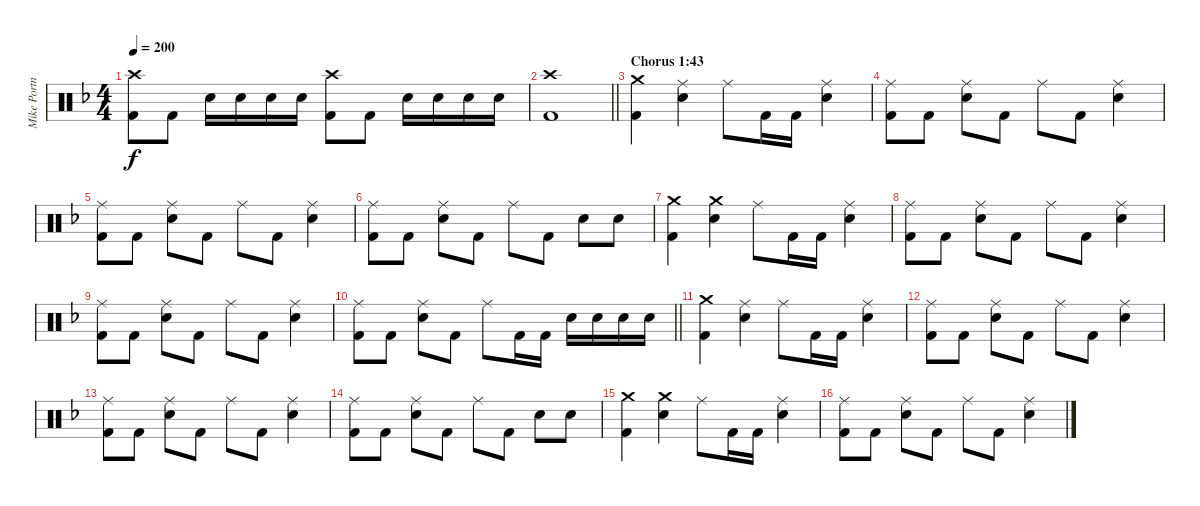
\track ("Mike Portnoy (Drums)" "Mike Portn") {instrument percussion}
\staff {score}
\articulation defaults
\ts (4 4)
\tempo 200
\clef neutral
\ks f
("Crash high (hit)" "Kick (hit) 2").8{dy f} "Kick (hit) 2".8 "Electric Snare (hit)".16 "Electric Snare (hit)".16 "Electric Snare (hit)".16 "Electric Snare (hit)".16 ("Crash high (hit)" "Kick (hit) 2").8 "Kick (hit) 2".8 "Electric Snare (hit)".16 "Electric Snare (hit)".16 "Electric Snare (hit)".16 "Electric Snare (hit)".16 |
\barLineRight lightlight
("Crash high (hit)" "Kick (hit) 2").1 |
\section ("" "Chorus 1:43")
("Crash medium (hit)" "Kick (hit) 2").4 ("Ride (middle)" "Electric Snare (hit)").4 "Ride (middle)".8 "Kick (hit) 2".16 "Kick (hit) 2".16 ("Ride (middle)" "Electric Snare (hit)").4 |
("Ride (middle)" "Kick (hit) 2").8 "Kick (hit) 2".8 ("Ride (middle)" "Electric Snare (hit)").8 "Kick (hit) 2".8 "Ride (middle)".8 "Kick (hit) 2".8 ("Ride (middle)" "Electric Snare (hit)").4 |
("Ride (middle)" "Kick (hit) 2").8 "Kick (hit) 2".8 ("Ride (middle)" "Electric Snare (hit)").8 "Kick (hit) 2".8 "Ride (middle)".8 "Kick (hit) 2".8 ("Ride (middle)" "Electric Snare (hit)").4 |
("Ride (middle)" "Kick (hit) 2").8 "Kick (hit) 2".8 ("Ride (middle)" "Electric Snare (hit)").8 "Kick (hit) 2".8 "Ride (middle)".8 "Kick (hit) 2".8 "Electric Snare (hit)".8 "Electric Snare (hit)".8 |
("Crash medium (hit)" "Kick (hit) 2").4 ("Crash medium (hit)" "Electric Snare (hit)").4 "Ride (middle)".8 "Kick (hit) 2".16 "Kick (hit) 2".16 ("Ride (middle)" "Electric Snare (hit)").4 |
("Ride (middle)" "Kick (hit) 2").8 "Kick (hit) 2".8 ("Ride (middle)" "Electric Snare (hit)").8 "Kick (hit) 2".8 "Ride (middle)".8 "Kick (hit) 2".8 ("Ride (middle)" "Electric Snare (hit)").4 |
("Ride (middle)" "Kick (hit) 2").8 "Kick (hit) 2".8 ("Ride (middle)" "Electric Snare (hit)").8 "Kick (hit) 2".8 "Ride (middle)".8 "Kick (hit) 2".8 ("Ride (middle)" "Electric Snare (hit)").4 |
\barLineRight lightlight
("Ride (middle)" "Kick (hit) 2").8 "Kick (hit) 2".8 ("Ride (middle)" "Electric Snare (hit)").8 "Kick (hit) 2".8 "Ride (middle)".8 "Kick (hit) 2".16 "Kick (hit) 2".16 "Electric Snare (hit)".16 "Electric Snare (hit)".16 "Electric Snare (hit)".16 "Electric Snare (hit)".16 |
\section ("" "")
("Crash medium (hit)" "Kick (hit) 2").4 ("Ride (middle)" "Electric Snare (hit)").4 "Ride (middle)".8 "Kick (hit) 2".16 "Kick (hit) 2".16 ("Ride (middle)" "Electric Snare (hit)").4 |
("Ride (middle)" "Kick (hit) 2").8 "Kick (hit) 2".8 ("Ride (middle)" "Electric Snare (hit)").8 "Kick (hit) 2".8 "Ride (middle)".8 "Kick (hit) 2".8 ("Ride (middle)" "Electric Snare (hit)").4 |
("Ride (middle)" "Kick (hit) 2").8 "Kick (hit) 2".8 ("Ride (middle)" "Electric Snare (hit)").8 "Kick (hit) 2".8 "Ride (middle)".8 "Kick (hit) 2".8 ("Ride (middle)" "Electric Snare (hit)").4 |
("Ride (middle)" "Kick (hit) 2").8 "Kick (hit) 2".8 ("Ride (middle)" "Electric Snare (hit)").8 "Kick (hit) 2".8 "Ride (middle)".8 "Kick (hit) 2".8 "Electric Snare (hit)".8 "Electric Snare (hit)".8 |
("Crash medium (hit)" "Kick (hit) 2").4 ("Crash medium (hit)" "Electric Snare (hit)").4 "Ride (middle)".8 "Kick (hit) 2".16 "Kick (hit) 2".16 ("Ride (middle)" "Electric Snare (hit)").4 |
("Ride (middle)" "Kick (hit) 2").8 "Kick (hit) 2".8 ("Ride (middle)" "Electric Snare (hit)").8 "Kick (hit) 2".8 "Ride (middle)".8 "Kick (hit) 2".8 ("Ride (middle)" "Electric Snare (hit)").4
